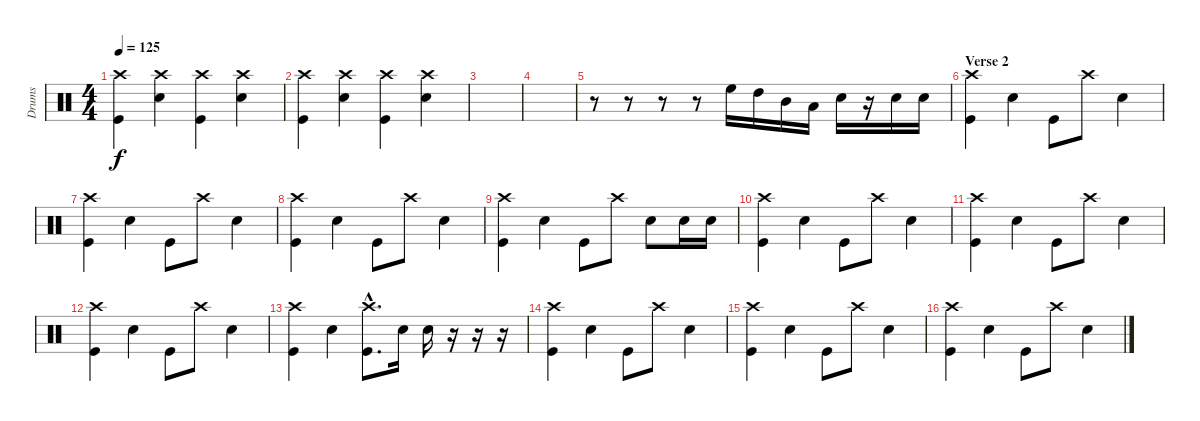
\track ("Drums" "Drums") {instrument percussion}
\staff {score}
\articulation defaults
\ts (4 4)
\tempo 125
\clef neutral
\ks c
("Crash high (hit)" "Kick (hit)").4{dy f} ("Crash high (hit)" "Snare (hit) 2").4 ("Crash high (hit)" "Kick (hit)").4 ("Crash high (hit)" "Snare (hit) 2").4 |
("Crash high (hit)" "Kick (hit)").4 ("Crash high (hit)" "Snare (hit) 2").4 ("Crash high (hit)" "Kick (hit)").4 ("Crash high (hit)" "Snare (hit) 2").4 |
|
|
r.8 r.8 r.8 r.8 "High Floor Tom (hit)".16 "High Tom (hit)".16 "Mid Tom (hit)".16 "Low Tom (hit)".16 "Snare (hit) 2".16 r.16 "Snare (hit) 2".16 "Snare (hit) 2".16 |
\section ("" "Verse 2")
("Crash high (hit)" "Kick (hit)").4 "Snare (hit) 2".4 "Kick (hit)".8 "Crash high (hit)".8 "Snare (hit) 2".4 |
("Crash high (hit)" "Kick (hit)").4 "Snare (hit) 2".4 "Kick (hit)".8 "Crash high (hit)".8 "Snare (hit) 2".4 |
("Crash high (hit)" "Kick (hit)").4 "Snare (hit) 2".4 "Kick (hit)".8 "Crash high (hit)".8 "Snare (hit) 2".4 |
("Crash high (hit)" "Kick (hit)").4 "Snare (hit) 2".4 "Kick (hit)".8 "Crash high (hit)".8 "Snare (hit) 2".8 "Snare (hit) 2".16 "Snare (hit) 2".16 |
("Crash high (hit)" "Kick (hit)").4 "Snare (hit) 2".4 "Kick (hit)".8 "Crash high (hit)".8 "Snare (hit) 2".4 |
("Crash high (hit)" "Kick (hit)").4 "Snare (hit) 2".4 "Kick (hit)".8 "Crash high (hit)".8 "Snare (hit) 2".4 |
("Crash high (hit)" "Kick (hit)").4 "Snare (hit) 2".4 "Kick (hit)".8 "Crash high (hit)".8 "Snare (hit) 2".4 |
("Crash high (hit)" "Kick (hit)").4 "Snare (hit) 2".4 ("Crash high (hit)"{hac} "Kick (hit)"{hac}).8{d} "Snare (hit) 2".16 "Snare (hit) 2".16 r.16 r.16 r.16 |
("Crash high (hit)" "Kick (hit)").4 "Snare (hit) 2".4 "Kick (hit)".8 "Crash high (hit)".8 "Snare (hit) 2".4 |
("Crash high (hit)" "Kick (hit)").4 "Snare (hit) 2".4 "Kick (hit)".8 "Crash high (hit)".8 "Snare (hit) 2".4 |
("Crash high (hit)" "Kick (hit)").4 "Snare (hit) 2".4 "Kick (hit)".8 "Crash high (hit)".8 "Snare (hit) 2".4
